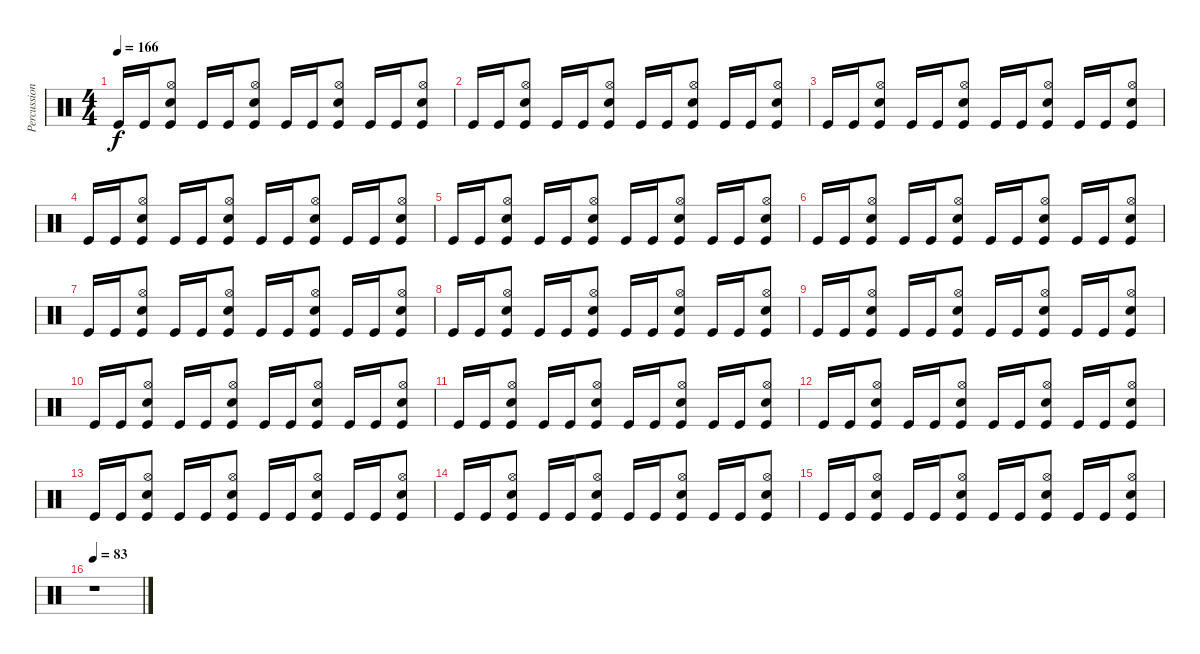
\track ("Percussioni" "Percussion") {instrument percussion}
\staff {score}
\articulation defaults
\ts (4 4)
\tempo 166
\clef neutral
\ks c "Kick (hit)".16{dy f} "Kick (hit)".16
("Hi-Hat (open)" "Snare (hit) 2" "Kick (hit)").8 "Kick (hit)".16 "Kick (hit)".16 ("Hi-Hat (open)" "Snare (hit) 2" "Kick (hit)").8 "Kick (hit)".16 "Kick (hit)".16 ("Hi-Hat (open)" "Snare (hit) 2" "Kick (hit)").8 "Kick (hit)".16 "Kick (hit)".16 ("Hi-Hat (open)" "Snare (hit) 2" "Kick (hit)").8 |
"Kick (hit)".16 "Kick (hit)".16 ("Hi-Hat (open)" "Snare (hit) 2" "Kick (hit)").8 "Kick (hit)".16 "Kick (hit)".16 ("Hi-Hat (open)" "Snare (hit) 2" "Kick (hit)").8 "Kick (hit)".16 "Kick (hit)".16 ("Hi-Hat (open)" "Snare (hit) 2" "Kick (hit)").8 "Kick (hit)".16 "Kick (hit)".16 ("Hi-Hat (open)" "Snare (hit) 2" "Kick (hit)").8 |
"Kick (hit)".16 "Kick (hit)".16 ("Hi-Hat (open)" "Snare (hit) 2" "Kick (hit)").8 "Kick (hit)".16 "Kick (hit)".16 ("Hi-Hat (open)" "Snare (hit) 2" "Kick (hit)").8 "Kick (hit)".16 "Kick (hit)".16 ("Hi-Hat (open)" "Snare (hit) 2" "Kick (hit)").8 "Kick (hit)".16 "Kick (hit)".16 ("Hi-Hat (open)" "Snare (hit) 2" "Kick (hit)").8 |
"Kick (hit)".16 "Kick (hit)".16 ("Hi-Hat (open)" "Snare (hit) 2" "Kick (hit)").8 "Kick (hit)".16 "Kick (hit)".16 ("Hi-Hat (open)" "Snare (hit) 2" "Kick (hit)").8 "Kick (hit)".16 "Kick (hit)".16 ("Hi-Hat (open)" "Snare (hit) 2" "Kick (hit)").8 "Kick (hit)".16 "Kick (hit)".16 ("Hi-Hat (open)" "Snare (hit) 2" "Kick (hit)").8 |
"Kick (hit)".16 "Kick (hit)".16 ("Hi-Hat (open)" "Snare (hit) 2" "Kick (hit)").8 "Kick (hit)".16 "Kick (hit)".16 ("Hi-Hat (open)" "Snare (hit) 2" "Kick (hit)").8 "Kick (hit)".16 "Kick (hit)".16 ("Hi-Hat (open)" "Snare (hit) 2" "Kick (hit)").8 "Kick (hit)".16 "Kick (hit)".16 ("Hi-Hat (open)" "Snare (hit) 2" "Kick (hit)").8 |
"Kick (hit)".16 "Kick (hit)".16 ("Hi-Hat (open)" "Snare (hit) 2" "Kick (hit)").8 "Kick (hit)".16 "Kick (hit)".16 ("Hi-Hat (open)" "Snare (hit) 2" "Kick (hit)").8 "Kick (hit)".16 "Kick (hit)".16 ("Hi-Hat (open)" "Snare (hit) 2" "Kick (hit)").8 "Kick (hit)".16 "Kick (hit)".16 ("Hi-Hat (open)" "Snare (hit) 2" "Kick (hit)").8 |
"Kick (hit)".16 "Kick (hit)".16 ("Hi-Hat (open)" "Snare (hit) 2" "Kick (hit)").8 "Kick (hit)".16 "Kick (hit)".16 ("Hi-Hat (open)" "Snare (hit) 2" "Kick (hit)").8 "Kick (hit)".16 "Kick (hit)".16 ("Hi-Hat (open)" "Snare (hit) 2" "Kick (hit)").8 "Kick (hit)".16 "Kick (hit)".16 ("Hi-Hat (open)" "Snare (hit) 2" "Kick (hit)").8 |
"Kick (hit)".16 "Kick (hit)".16 ("Hi-Hat (open)" "Snare (hit) 2" "Kick (hit)").8 "Kick (hit)".16 "Kick (hit)".16 ("Hi-Hat (open)" "Snare (hit) 2" "Kick (hit)").8 "Kick (hit)".16 "Kick (hit)".16 ("Hi-Hat (open)" "Snare (hit) 2" "Kick (hit)").8 "Kick (hit)".16 "Kick (hit)".16 ("Hi-Hat (open)" "Snare (hit) 2" "Kick (hit)").8 |
"Kick (hit)".16 "Kick (hit)".16 ("Hi-Hat (open)" "Snare (hit) 2" "Kick (hit)").8 "Kick (hit)".16 "Kick (hit)".16 ("Hi-Hat (open)" "Snare (hit) 2" "Kick (hit)").8 "Kick (hit)".16 "Kick (hit)".16 ("Hi-Hat (open)" "Snare (hit) 2" "Kick (hit)").8 "Kick (hit)".16 "Kick (hit)".16 ("Hi-Hat (open)" "Snare (hit) 2" "Kick (hit)").8 |
"Kick (hit)".16 "Kick (hit)".16 ("Hi-Hat (open)" "Snare (hit) 2" "Kick (hit)").8 "Kick (hit)".16 "Kick (hit)".16 ("Hi-Hat (open)" "Snare (hit) 2" "Kick (hit)").8 "Kick (hit)".16 "Kick (hit)".16 ("Hi-Hat (open)" "Snare (hit) 2" "Kick (hit)").8 "Kick (hit)".16 "Kick (hit)".16 ("Hi-Hat (open)" "Snare (hit) 2" "Kick (hit)").8 |
"Kick (hit)".16 "Kick (hit)".16 ("Hi-Hat (open)" "Snare (hit) 2" "Kick (hit)").8 "Kick (hit)".16 "Kick (hit)".16 ("Hi-Hat (open)" "Snare (hit) 2" "Kick (hit)").8 "Kick (hit)".16 "Kick (hit)".16 ("Hi-Hat (open)" "Snare (hit) 2" "Kick (hit)").8 "Kick (hit)".16 "Kick (hit)".16 ("Hi-Hat (open)" "Snare (hit) 2" "Kick (hit)").8 |
"Kick (hit)".16 "Kick (hit)".16 ("Hi-Hat (open)" "Snare (hit) 2" "Kick (hit)").8 "Kick (hit)".16 "Kick (hit)".16 ("Hi-Hat (open)" "Snare (hit) 2" "Kick (hit)").8 "Kick (hit)".16 "Kick (hit)".16 ("Hi-Hat (open)" "Snare (hit) 2" "Kick (hit)").8 "Kick (hit)".16 "Kick (hit)".16 ("Hi-Hat (open)" "Snare (hit) 2" "Kick (hit)").8 |
"Kick (hit)".16 "Kick (hit)".16 ("Hi-Hat (open)" "Snare (hit) 2" "Kick (hit)").8 "Kick (hit)".16 "Kick (hit)".16 ("Hi-Hat (open)" "Snare (hit) 2" "Kick (hit)").8 "Kick (hit)".16 "Kick (hit)".16 ("Hi-Hat (open)" "Snare (hit) 2" "Kick (hit)").8 "Kick (hit)".16 "Kick (hit)".16 ("Hi-Hat (open)" "Snare (hit) 2" "Kick (hit)").8 |
"Kick (hit)".16 "Kick (hit)".16 ("Hi-Hat (open)" "Snare (hit) 2" "Kick (hit)").8 "Kick (hit)".16 "Kick (hit)".16 ("Hi-Hat (open)" "Snare (hit) 2" "Kick (hit)").8 "Kick (hit)".16 "Kick (hit)".16 ("Hi-Hat (open)" "Snare (hit) 2" "Kick (hit)").8 "Kick (hit)".16 "Kick (hit)".16 ("Hi-Hat (open)" "Snare (hit) 2" "Kick (hit)").8 |
"Kick (hit)".16 "Kick (hit)".16 ("Hi-Hat (open)" "Snare (hit) 2" "Kick (hit)").8 "Kick (hit)".16 "Kick (hit)".16 ("Hi-Hat (open)" "Snare (hit) 2" "Kick (hit)").8 "Kick (hit)".16 "Kick (hit)".16 ("Hi-Hat (open)" "Snare (hit) 2" "Kick (hit)").8 "Kick (hit)".16 "Kick (hit)".16 ("Hi-Hat (open)" "Snare (hit) 2" "Kick (hit)").8 |
\tempo 83
r.1
